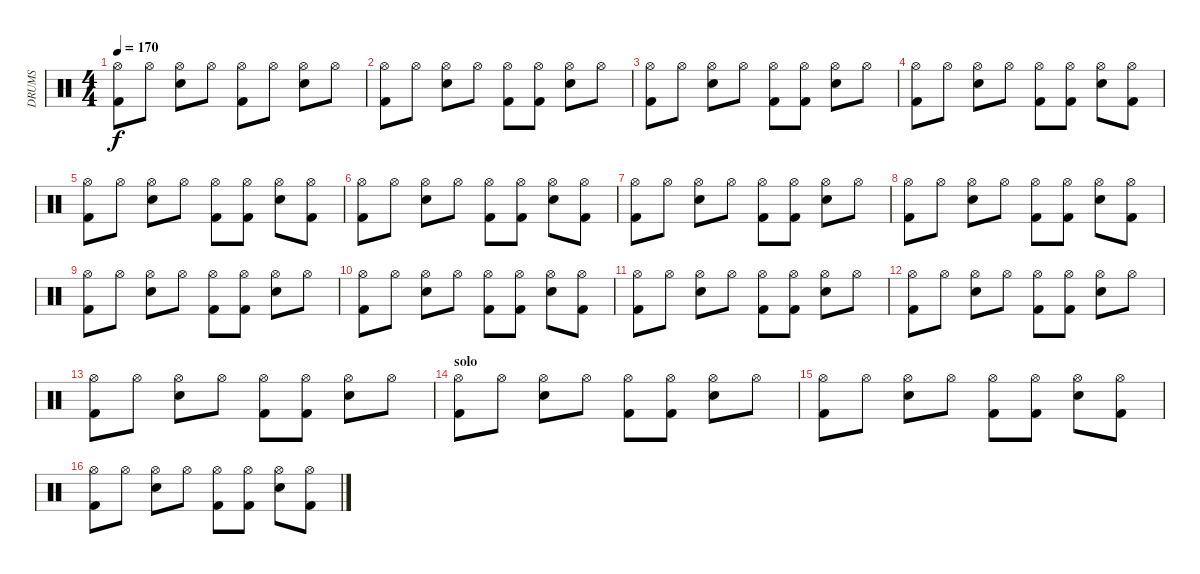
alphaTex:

\track ("DRUMS" "DRUMS") {instrument percussion}
\staff {score}
\articulation defaults
\ts (4 4)
\tempo 170
\clef neutral
\ks c
("Hi-Hat (open)" "Kick (hit) 2").8{dy f} "Hi-Hat (open)".8 ("Hi-Hat (open)" "Snare (hit) 2").8 "Hi-Hat (open)".8 ("Hi-Hat (open)" "Kick (hit) 2").8 "Hi-Hat (open)".8 ("Hi-Hat (open)" "Snare (hit) 2").8 "Hi-Hat (open)".8 |
("Hi-Hat (open)" "Kick (hit) 2").8 "Hi-Hat (open)".8 ("Hi-Hat (open)" "Snare (hit) 2").8 "Hi-Hat (open)".8 ("Hi-Hat (open)" "Kick (hit) 2").8 ("Hi-Hat (open)" "Kick (hit) 2").8 ("Hi-Hat (open)" "Snare (hit) 2").8 "Hi-Hat (open)".8 |
("Hi-Hat (open)" "Kick (hit) 2").8 "Hi-Hat (open)".8 ("Hi-Hat (open)" "Snare (hit) 2").8 "Hi-Hat (open)".8 ("Hi-Hat (open)" "Kick (hit) 2").8 ("Hi-Hat (open)" "Kick (hit) 2").8 ("Hi-Hat (open)" "Snare (hit) 2").8 "Hi-Hat (open)".8 |
("Hi-Hat (open)" "Kick (hit) 2").8 "Hi-Hat (open)".8 ("Hi-Hat (open)" "Snare (hit) 2").8 "Hi-Hat (open)".8 ("Hi-Hat (open)" "Kick (hit) 2").8 ("Hi-Hat (open)" "Kick (hit) 2").8 ("Hi-Hat (open)" "Snare (hit) 2").8 ("Hi-Hat (open)" "Kick (hit) 2").8 |
("Hi-Hat (open)" "Kick (hit) 2").8 "Hi-Hat (open)".8 ("Hi-Hat (open)" "Snare (hit) 2").8 "Hi-Hat (open)".8 ("Hi-Hat (open)" "Kick (hit) 2").8 ("Hi-Hat (open)" "Kick (hit) 2").8 ("Hi-Hat (open)" "Snare (hit) 2").8 ("Hi-Hat (open)" "Kick (hit) 2").8 |
("Hi-Hat (open)" "Kick (hit) 2").8 "Hi-Hat (open)".8 ("Hi-Hat (open)" "Snare (hit) 2").8 "Hi-Hat (open)".8 ("Hi-Hat (open)" "Kick (hit) 2").8 ("Hi-Hat (open)" "Kick (hit) 2").8 ("Hi-Hat (open)" "Snare (hit) 2").8 ("Hi-Hat (open)" "Kick (hit) 2").8 |
("Hi-Hat (open)" "Kick (hit) 2").8 "Hi-Hat (open)".8 ("Hi-Hat (open)" "Snare (hit) 2").8 "Hi-Hat (open)".8 ("Hi-Hat (open)" "Kick (hit) 2").8 ("Hi-Hat (open)" "Kick (hit) 2").8 ("Hi-Hat (open)" "Snare (hit) 2").8 "Hi-Hat (open)".8 |
("Hi-Hat (open)" "Kick (hit) 2").8 "Hi-Hat (open)".8 ("Hi-Hat (open)" "Snare (hit) 2").8 "Hi-Hat (open)".8 ("Hi-Hat (open)" "Kick (hit) 2").8 ("Hi-Hat (open)" "Kick (hit) 2").8 ("Hi-Hat (open)" "Snare (hit) 2").8 ("Hi-Hat (open)" "Kick (hit) 2").8 |
("Hi-Hat (open)" "Kick (hit) 2").8 "Hi-Hat (open)".8 ("Hi-Hat (open)" "Snare (hit) 2").8 "Hi-Hat (open)".8 ("Hi-Hat (open)" "Kick (hit) 2").8 ("Hi-Hat (open)" "Kick (hit) 2").8 ("Hi-Hat (open)" "Snare (hit) 2").8 "Hi-Hat (open)".8 |
("Hi-Hat (open)" "Kick (hit) 2").8 "Hi-Hat (open)".8 ("Hi-Hat (open)" "Snare (hit) 2").8 "Hi-Hat (open)".8 ("Hi-Hat (open)" "Kick (hit) 2").8 ("Hi-Hat (open)" "Kick (hit) 2").8 ("Hi-Hat (open)" "Snare (hit) 2").8 ("Hi-Hat (open)" "Kick (hit) 2").8 |
("Hi-Hat (open)" "Kick (hit) 2").8 "Hi-Hat (open)".8 ("Hi-Hat (open)" "Snare (hit) 2").8 "Hi-Hat (open)".8 ("Hi-Hat (open)" "Kick (hit) 2").8 ("Hi-Hat (open)" "Kick (hit) 2").8 ("Hi-Hat (open)" "Snare (hit) 2").8 "Hi-Hat (open)".8 |
("Hi-Hat (open)" "Kick (hit) 2").8 "Hi-Hat (open)".8 ("Hi-Hat (open)" "Snare (hit) 2").8 "Hi-Hat (open)".8 ("Hi-Hat (open)" "Kick (hit) 2").8 ("Hi-Hat (open)" "Kick (hit) 2").8 ("Hi-Hat (open)" "Snare (hit) 2").8 "Hi-Hat (open)".8 |
("Hi-Hat (open)" "Kick (hit) 2").8 "Hi-Hat (open)".8 ("Hi-Hat (open)" "Snare (hit) 2").8 "Hi-Hat (open)".8 ("Hi-Hat (open)" "Kick (hit) 2").8 ("Hi-Hat (open)" "Kick (hit) 2").8 ("Hi-Hat (open)" "Snare (hit) 2").8 "Hi-Hat (open)".8 |
\section ("" "solo")
("Hi-Hat (open)" "Kick (hit) 2").8 "Hi-Hat (open)".8 ("Hi-Hat (open)" "Snare (hit) 2").8 "Hi-Hat (open)".8 ("Hi-Hat (open)" "Kick (hit) 2").8 ("Hi-Hat (open)" "Kick (hit) 2").8 ("Hi-Hat (open)" "Snare (hit) 2").8 "Hi-Hat (open)".8 |
("Hi-Hat (open)" "Kick (hit) 2").8 "Hi-Hat (open)".8 ("Hi-Hat (open)" "Snare (hit) 2").8 "Hi-Hat (open)".8 ("Hi-Hat (open)" "Kick (hit) 2").8 ("Hi-Hat (open)" "Kick (hit) 2").8 ("Hi-Hat (open)" "Snare (hit) 2").8 ("Hi-Hat (open)" "Kick (hit) 2").8 |
("Hi-Hat (open)" "Kick (hit) 2").8 "Hi-Hat (open)".8 ("Hi-Hat (open)" "Snare (hit) 2").8 "Hi-Hat (open)".8 ("Hi-Hat (open)" "Kick (hit) 2").8 ("Hi-Hat (open)" "Kick (hit) 2").8 ("Hi-Hat (open)" "Snare (hit) 2").8 ("Hi-Hat (open)" "Kick (hit) 2").8
